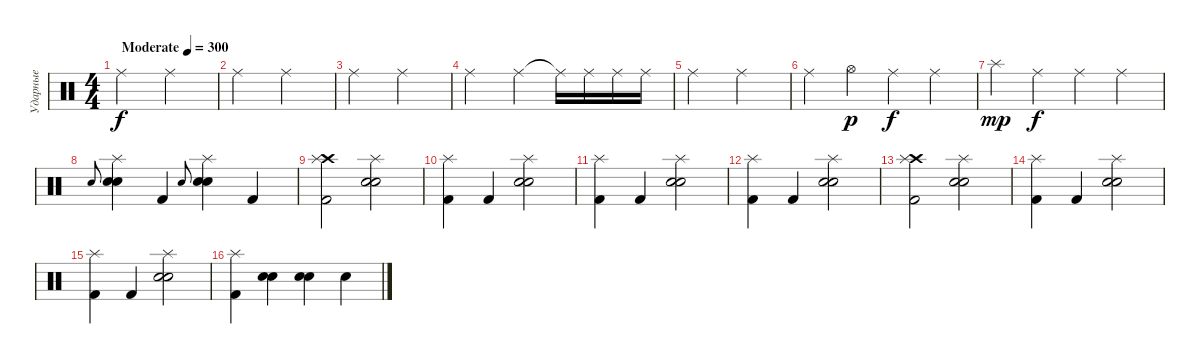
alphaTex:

\track ("Ударные" "Ударные") {instrument percussion}
\staff {score}
\articulation defaults
\ts (4 4)
\tempo (300 "Moderate")
\clef neutral
\ks c "Ride (middle)".2{dy f} "Ride (middle)".2
|
"Ride (middle)".2 "Ride (middle)".2 |
"Ride (middle)".2 "Ride (middle)".2 |
"Ride (middle)".2 "Ride (middle)".4 "Ride (middle)"{t}.16 "Ride (middle)".16 "Ride (middle)".16 "Ride (middle)".16 |
"Ride (middle)".2 "Ride (middle)".2 |
"Ride (middle)".4 "Hi-Hat (open)".4{dy p} "Ride (middle)".4{dy f} "Ride (middle)".4 |
"Splash (hit)".4{dy mp} "Ride (middle)".4{dy f} "Ride (middle)".4 "Ride (middle)".4 |
"Electric Snare (hit)".8{gr onbeat} ("Splash (hit)" "Electric Snare (hit)" "Snare (hit) 2").4 "Kick (hit) 2".4 "Electric Snare (hit)".8{gr onbeat} ("Splash (hit)" "Electric Snare (hit)" "Snare (hit) 2").4 "Kick (hit) 2".4 |
("Crash high (hit)" "Splash (hit)" "Kick (hit) 2").2 ("Splash (hit)" "Electric Snare (hit)" "Snare (hit) 2").2 |
("Splash (hit)" "Kick (hit) 2").4 "Kick (hit) 2".4 ("Splash (hit)" "Electric Snare (hit)" "Snare (hit) 2").2 |
("Splash (hit)" "Kick (hit) 2").4 "Kick (hit) 2".4 ("Splash (hit)" "Electric Snare (hit)" "Snare (hit) 2").2 |
("Splash (hit)" "Kick (hit) 2").4 "Kick (hit) 2".4 ("Splash (hit)" "Electric Snare (hit)" "Snare (hit) 2").2 |
("Crash high (hit)" "Splash (hit)" "Kick (hit) 2").2 ("Splash (hit)" "Electric Snare (hit)" "Snare (hit) 2").2 |
("Splash (hit)" "Kick (hit) 2").4 "Kick (hit) 2".4 ("Splash (hit)" "Electric Snare (hit)" "Snare (hit) 2").2 |
("Splash (hit)" "Kick (hit) 2").4 "Kick (hit) 2".4 ("Splash (hit)" "Electric Snare (hit)" "Snare (hit) 2").2 |
("Splash (hit)" "Kick (hit) 2").4 ("Electric Snare (hit)" "Snare (hit) 2").4 ("Electric Snare (hit)" "Snare (hit) 2").4 "Electric Snare (hit)".4
